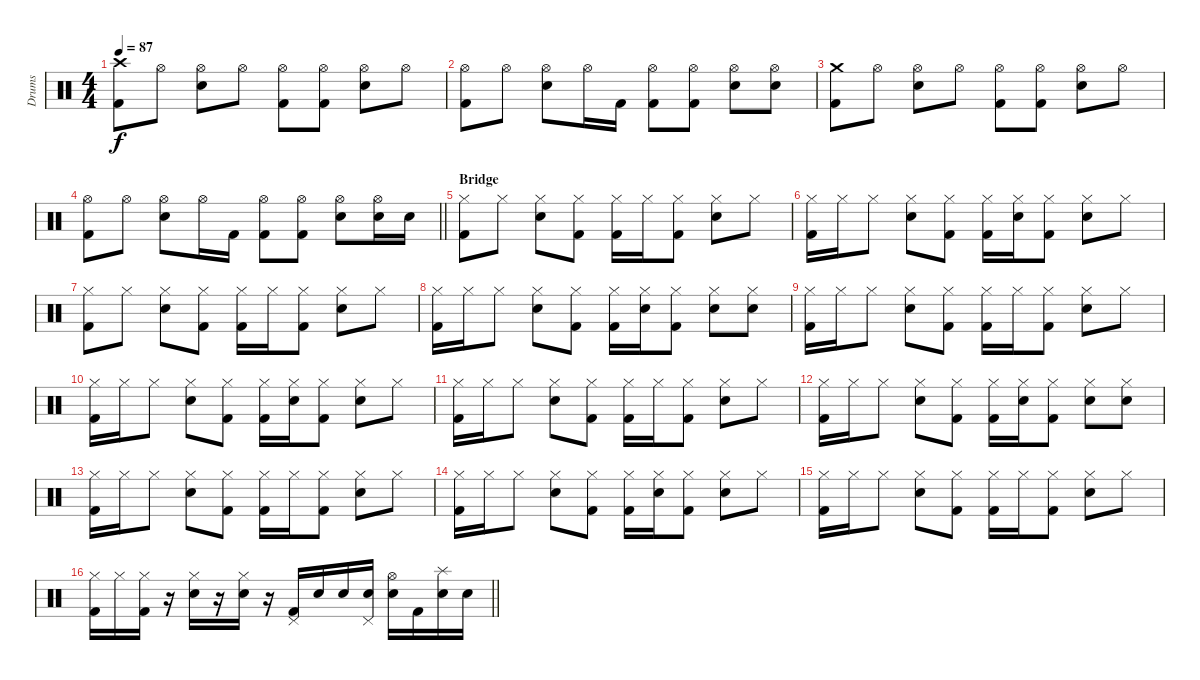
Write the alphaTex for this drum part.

\track ("Drums" "Drums") {instrument percussion}
\staff {score}
\articulation defaults
\ts (4 4)
\tempo 87
\clef neutral
\ks c
("Crash high (hit)" "Kick (hit) 2").8{dy f} "Hi-Hat (open)".8 ("Hi-Hat (open)" "Snare (hit) 2").8 "Hi-Hat (open)".8 ("Hi-Hat (open)" "Kick (hit) 2").8 ("Hi-Hat (open)" "Kick (hit) 2").8 ("Hi-Hat (open)" "Snare (hit) 2").8 "Hi-Hat (open)".8 |
("Hi-Hat (open)" "Kick (hit) 2").8 "Hi-Hat (open)".8 ("Hi-Hat (open)" "Snare (hit) 2").8 "Hi-Hat (open)".16 "Kick (hit) 2".16 ("Hi-Hat (open)" "Kick (hit) 2").8 ("Hi-Hat (open)" "Kick (hit) 2").8 ("Hi-Hat (open)" "Snare (hit) 2").8 ("Hi-Hat (open)" "Snare (hit) 2").8 |
("Crash medium (hit)" "Kick (hit) 2").8 "Hi-Hat (open)".8 ("Hi-Hat (open)" "Snare (hit) 2").8 "Hi-Hat (open)".8 ("Hi-Hat (open)" "Kick (hit) 2").8 ("Hi-Hat (open)" "Kick (hit) 2").8 ("Hi-Hat (open)" "Snare (hit) 2").8 "Hi-Hat (open)".8 |
\barLineRight lightlight
("Hi-Hat (open)" "Kick (hit) 2").8 "Hi-Hat (open)".8 ("Hi-Hat (open)" "Snare (hit) 2").8 "Hi-Hat (open)".16 "Kick (hit) 2".16 ("Hi-Hat (open)" "Kick (hit) 2").8 ("Hi-Hat (open)" "Kick (hit) 2").8 ("Hi-Hat (open)" "Snare (hit) 2").8 ("Hi-Hat (open)" "Snare (hit) 2").16 "Snare (hit) 2".16 |
\section ("" "Bridge")
("Hi-Hat (closed)" "Kick (hit) 2").8 "Hi-Hat (closed)".8 ("Hi-Hat (closed)" "Electric Snare (hit)").8 ("Hi-Hat (closed)" "Kick (hit) 2").8 ("Hi-Hat (closed)" "Kick (hit) 2").16 "Hi-Hat (closed)".16 ("Hi-Hat (closed)" "Kick (hit) 2").8 ("Hi-Hat (closed)" "Electric Snare (hit)").8 "Hi-Hat (closed)".8 |
("Hi-Hat (closed)" "Kick (hit) 2").16 "Hi-Hat (closed)".16 "Hi-Hat (closed)".8 ("Hi-Hat (closed)" "Electric Snare (hit)").8 ("Hi-Hat (closed)" "Kick (hit) 2").8 ("Hi-Hat (closed)" "Kick (hit) 2").16 ("Hi-Hat (closed)" "Electric Snare (hit)").16 ("Hi-Hat (closed)" "Kick (hit) 2").8 ("Hi-Hat (closed)" "Electric Snare (hit)").8 "Hi-Hat (closed)".8 |
("Hi-Hat (closed)" "Kick (hit) 2").8 "Hi-Hat (closed)".8 ("Hi-Hat (closed)" "Electric Snare (hit)").8 ("Hi-Hat (closed)" "Kick (hit) 2").8 ("Hi-Hat (closed)" "Kick (hit) 2").16 "Hi-Hat (closed)".16 ("Hi-Hat (closed)" "Kick (hit) 2").8 ("Hi-Hat (closed)" "Electric Snare (hit)").8 "Hi-Hat (closed)".8 |
("Hi-Hat (closed)" "Kick (hit) 2").16 "Hi-Hat (closed)".16 "Hi-Hat (closed)".8 ("Hi-Hat (closed)" "Electric Snare (hit)").8 ("Hi-Hat (closed)" "Kick (hit) 2").8 ("Hi-Hat (closed)" "Kick (hit) 2").16 ("Hi-Hat (closed)" "Electric Snare (hit)").16 ("Hi-Hat (closed)" "Kick (hit) 2").8 ("Hi-Hat (closed)" "Electric Snare (hit)").8 ("Hi-Hat (closed)" "Electric Snare (hit)").8 |
("Hi-Hat (closed)" "Kick (hit) 2").16 "Hi-Hat (closed)".16 "Hi-Hat (closed)".8 ("Hi-Hat (closed)" "Electric Snare (hit)").8 ("Hi-Hat (closed)" "Kick (hit) 2").8 ("Hi-Hat (closed)" "Kick (hit) 2").16 "Hi-Hat (closed)".16 ("Hi-Hat (closed)" "Kick (hit) 2").8 ("Hi-Hat (closed)" "Electric Snare (hit)").8 "Hi-Hat (closed)".8 |
("Hi-Hat (closed)" "Kick (hit) 2").16 "Hi-Hat (closed)".16 "Hi-Hat (closed)".8 ("Hi-Hat (closed)" "Electric Snare (hit)").8 ("Hi-Hat (closed)" "Kick (hit) 2").8 ("Hi-Hat (closed)" "Kick (hit) 2").16 ("Hi-Hat (closed)" "Electric Snare (hit)").16 ("Hi-Hat (closed)" "Kick (hit) 2").8 ("Hi-Hat (closed)" "Electric Snare (hit)").8 "Hi-Hat (closed)".8 |
("Hi-Hat (closed)" "Kick (hit) 2").16 "Hi-Hat (closed)".16 "Hi-Hat (closed)".8 ("Hi-Hat (closed)" "Electric Snare (hit)").8 ("Hi-Hat (closed)" "Kick (hit) 2").8 ("Hi-Hat (closed)" "Kick (hit) 2").16 "Hi-Hat (closed)".16 ("Hi-Hat (closed)" "Kick (hit) 2").8 ("Hi-Hat (closed)" "Electric Snare (hit)").8 "Hi-Hat (closed)".8 |
("Hi-Hat (closed)" "Kick (hit) 2").16 "Hi-Hat (closed)".16 "Hi-Hat (closed)".8 ("Hi-Hat (closed)" "Electric Snare (hit)").8 ("Hi-Hat (closed)" "Kick (hit) 2").8 ("Hi-Hat (closed)" "Kick (hit) 2").16 ("Hi-Hat (closed)" "Electric Snare (hit)").16 ("Hi-Hat (closed)" "Kick (hit) 2").8 ("Hi-Hat (closed)" "Electric Snare (hit)").8 ("Hi-Hat (closed)" "Electric Snare (hit)").8 |
("Hi-Hat (closed)" "Kick (hit) 2").16 "Hi-Hat (closed)".16 "Hi-Hat (closed)".8 ("Hi-Hat (closed)" "Electric Snare (hit)").8 ("Hi-Hat (closed)" "Kick (hit) 2").8 ("Hi-Hat (closed)" "Kick (hit) 2").16 "Hi-Hat (closed)".16 ("Hi-Hat (closed)" "Kick (hit) 2").8 ("Hi-Hat (closed)" "Electric Snare (hit)").8 "Hi-Hat (closed)".8 |
("Hi-Hat (closed)" "Kick (hit) 2").16 "Hi-Hat (closed)".16 "Hi-Hat (closed)".8 ("Hi-Hat (closed)" "Electric Snare (hit)").8 ("Hi-Hat (closed)" "Kick (hit) 2").8 ("Hi-Hat (closed)" "Kick (hit) 2").16 ("Hi-Hat (closed)" "Electric Snare (hit)").16 ("Hi-Hat (closed)" "Kick (hit) 2").8 ("Hi-Hat (closed)" "Electric Snare (hit)").8 "Hi-Hat (closed)".8 |
("Hi-Hat (closed)" "Kick (hit) 2").16 "Hi-Hat (closed)".16 "Hi-Hat (closed)".8 ("Hi-Hat (closed)" "Electric Snare (hit)").8 ("Hi-Hat (closed)" "Kick (hit) 2").8 ("Hi-Hat (closed)" "Kick (hit) 2").16 "Hi-Hat (closed)".16 ("Hi-Hat (closed)" "Kick (hit) 2").8 ("Hi-Hat (closed)" "Electric Snare (hit)").8 "Hi-Hat (closed)".8 |
\barLineRight lightlight
("Hi-Hat (closed)" "Kick (hit) 2").16 "Hi-Hat (closed)".16 ("Hi-Hat (closed)" "Kick (hit) 2").16 r.16 ("Hi-Hat (closed)" "Electric Snare (hit)").16 r.16 ("Hi-Hat (closed)" "Electric Snare (hit)").16 r.16 ("Pedal Hi-Hat (hit)" "Kick (hit) 2").16 "Electric Snare (hit)".16 "Electric Snare (hit)".16 ("Pedal Hi-Hat (hit)" "Electric Snare (hit)").16 ("Hi-Hat (open)" "Electric Snare (hit)").16 "Kick (hit) 2".16 ("Splash (hit)" "Electric Snare (hit)").16 "Electric Snare (hit)".16
